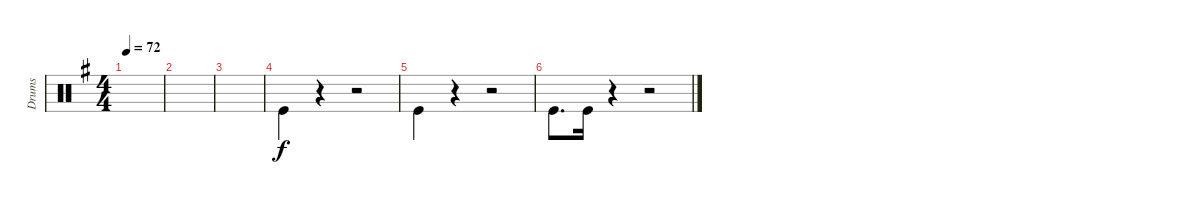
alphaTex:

\track ("Drums" "Drums") {instrument percussion}
\staff {score}
\articulation defaults
\ts (4 4)
\tempo 72
\clef neutral
\ks g
|
|
|
"Kick (hit)".4{beam Down} r.4 r.2 |
"Kick (hit)".4{beam Down} r.4 r.2 |
"Kick (hit)".8{d beam Down} "Kick (hit)".16{beam Down} r.4 r.2
